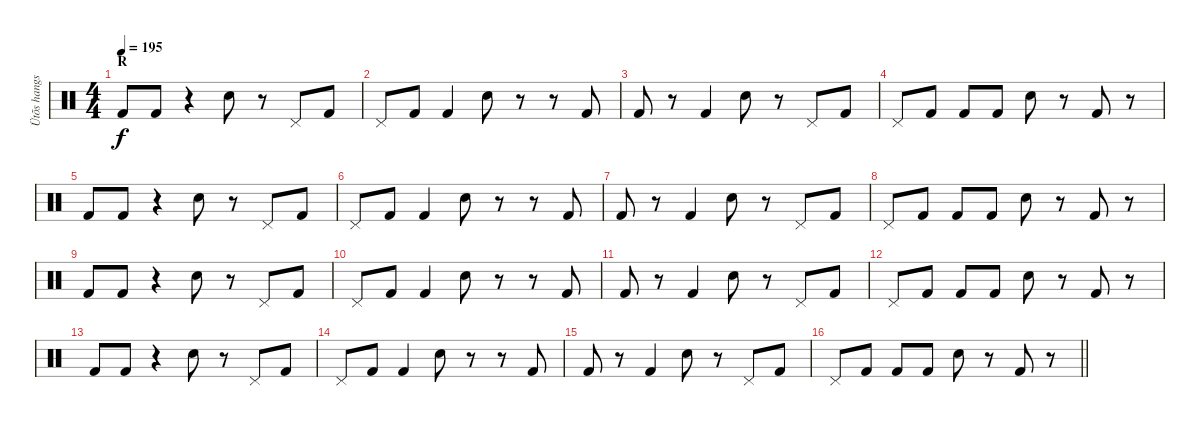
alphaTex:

\track ("Ütõs hangszer" "Ütõs hangs") {instrument percussion}
\staff {score}
\articulation defaults
\ts (4 4)
\section ("" "R")
\tempo 195
\clef neutral
\ks c "Kick (hit) 2".8{dy f} "Kick (hit) 2".8
r.4 "Electric Snare (hit)".8 r.8 "Pedal Hi-Hat (hit)".8 "Kick (hit) 2".8 |
"Pedal Hi-Hat (hit)".8 "Kick (hit) 2".8 "Kick (hit) 2".4 "Electric Snare (hit)".8 r.8 r.8 "Kick (hit) 2".8 |
"Kick (hit) 2".8 r.8 "Kick (hit) 2".4 "Electric Snare (hit)".8 r.8 "Pedal Hi-Hat (hit)".8 "Kick (hit) 2".8 |
"Pedal Hi-Hat (hit)".8 "Kick (hit) 2".8 "Kick (hit) 2".8 "Kick (hit) 2".8 "Electric Snare (hit)".8 r.8 "Kick (hit) 2".8 r.8 |
"Kick (hit) 2".8 "Kick (hit) 2".8 r.4 "Electric Snare (hit)".8 r.8 "Pedal Hi-Hat (hit)".8 "Kick (hit) 2".8 |
"Pedal Hi-Hat (hit)".8 "Kick (hit) 2".8 "Kick (hit) 2".4 "Electric Snare (hit)".8 r.8 r.8 "Kick (hit) 2".8 |
"Kick (hit) 2".8 r.8 "Kick (hit) 2".4 "Electric Snare (hit)".8 r.8 "Pedal Hi-Hat (hit)".8 "Kick (hit) 2".8 |
"Pedal Hi-Hat (hit)".8 "Kick (hit) 2".8 "Kick (hit) 2".8 "Kick (hit) 2".8 "Electric Snare (hit)".8 r.8 "Kick (hit) 2".8 r.8 |
"Kick (hit) 2".8 "Kick (hit) 2".8 r.4 "Electric Snare (hit)".8 r.8 "Pedal Hi-Hat (hit)".8 "Kick (hit) 2".8 |
"Pedal Hi-Hat (hit)".8 "Kick (hit) 2".8 "Kick (hit) 2".4 "Electric Snare (hit)".8 r.8 r.8 "Kick (hit) 2".8 |
"Kick (hit) 2".8 r.8 "Kick (hit) 2".4 "Electric Snare (hit)".8 r.8 "Pedal Hi-Hat (hit)".8 "Kick (hit) 2".8 |
"Pedal Hi-Hat (hit)".8 "Kick (hit) 2".8 "Kick (hit) 2".8 "Kick (hit) 2".8 "Electric Snare (hit)".8 r.8 "Kick (hit) 2".8 r.8 |
"Kick (hit) 2".8 "Kick (hit) 2".8 r.4 "Electric Snare (hit)".8 r.8 "Pedal Hi-Hat (hit)".8 "Kick (hit) 2".8 |
"Pedal Hi-Hat (hit)".8 "Kick (hit) 2".8 "Kick (hit) 2".4 "Electric Snare (hit)".8 r.8 r.8 "Kick (hit) 2".8 |
"Kick (hit) 2".8 r.8 "Kick (hit) 2".4 "Electric Snare (hit)".8 r.8 "Pedal Hi-Hat (hit)".8 "Kick (hit) 2".8 |
\barLineRight lightlight "Pedal Hi-Hat (hit)".8 "Kick (hit) 2".8 "Kick (hit) 2".8 "Kick (hit) 2".8 "Electric Snare (hit)".8
r.8 "Kick (hit) 2".8 r.8
